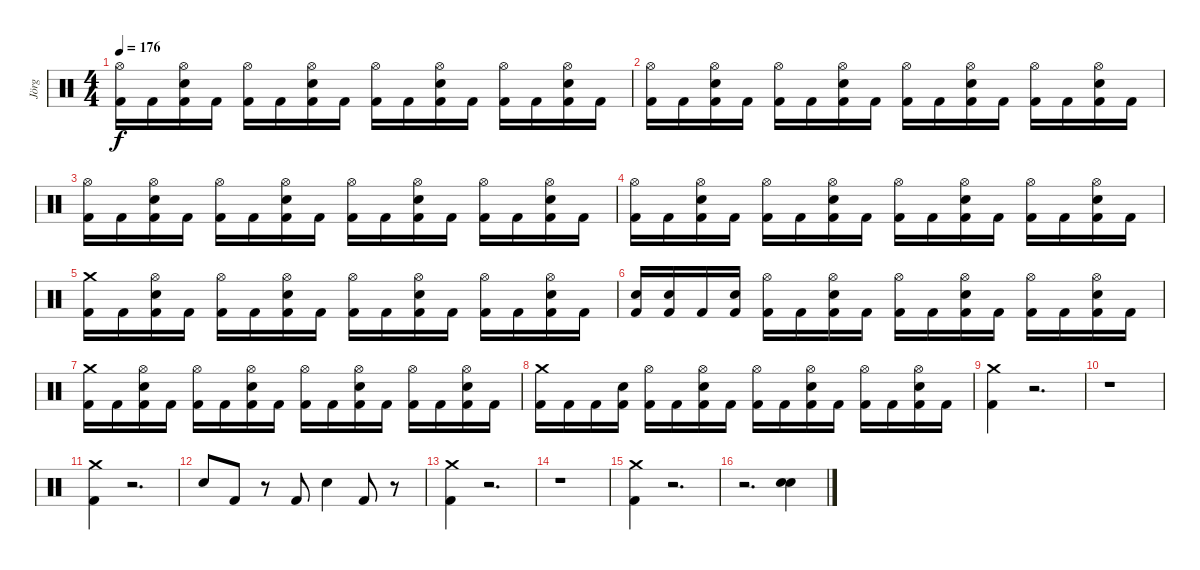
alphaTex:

\track ("Jörg" "Jörg") {instrument percussion}
\staff {score}
\articulation defaults
\ts (4 4)
\tempo 176
\clef neutral
\ks c
("Hi-Hat (open)" "Kick (hit) 2").16{dy f} "Kick (hit) 2".16 ("Snare (hit) 2" "Hi-Hat (open)" "Kick (hit) 2").16 "Kick (hit) 2".16 ("Hi-Hat (open)" "Kick (hit) 2").16 "Kick (hit) 2".16 ("Snare (hit) 2" "Hi-Hat (open)" "Kick (hit) 2").16 "Kick (hit) 2".16 ("Hi-Hat (open)" "Kick (hit) 2").16 "Kick (hit) 2".16 ("Snare (hit) 2" "Hi-Hat (open)" "Kick (hit) 2").16 "Kick (hit) 2".16 ("Hi-Hat (open)" "Kick (hit) 2").16 "Kick (hit) 2".16 ("Snare (hit) 2" "Hi-Hat (open)" "Kick (hit) 2").16 "Kick (hit) 2".16 |
("Hi-Hat (open)" "Kick (hit) 2").16 "Kick (hit) 2".16 ("Snare (hit) 2" "Hi-Hat (open)" "Kick (hit) 2").16 "Kick (hit) 2".16 ("Hi-Hat (open)" "Kick (hit) 2").16 "Kick (hit) 2".16 ("Snare (hit) 2" "Hi-Hat (open)" "Kick (hit) 2").16 "Kick (hit) 2".16 ("Hi-Hat (open)" "Kick (hit) 2").16 "Kick (hit) 2".16 ("Snare (hit) 2" "Hi-Hat (open)" "Kick (hit) 2").16 "Kick (hit) 2".16 ("Hi-Hat (open)" "Kick (hit) 2").16 "Kick (hit) 2".16 ("Snare (hit) 2" "Hi-Hat (open)" "Kick (hit) 2").16 "Kick (hit) 2".16 |
("Hi-Hat (open)" "Kick (hit) 2").16 "Kick (hit) 2".16 ("Snare (hit) 2" "Hi-Hat (open)" "Kick (hit) 2").16 "Kick (hit) 2".16 ("Hi-Hat (open)" "Kick (hit) 2").16 "Kick (hit) 2".16 ("Snare (hit) 2" "Hi-Hat (open)" "Kick (hit) 2").16 "Kick (hit) 2".16 ("Hi-Hat (open)" "Kick (hit) 2").16 "Kick (hit) 2".16 ("Snare (hit) 2" "Hi-Hat (open)" "Kick (hit) 2").16 "Kick (hit) 2".16 ("Hi-Hat (open)" "Kick (hit) 2").16 "Kick (hit) 2".16 ("Snare (hit) 2" "Hi-Hat (open)" "Kick (hit) 2").16 "Kick (hit) 2".16 |
("Hi-Hat (open)" "Kick (hit) 2").16 "Kick (hit) 2".16 ("Snare (hit) 2" "Hi-Hat (open)" "Kick (hit) 2").16 "Kick (hit) 2".16 ("Hi-Hat (open)" "Kick (hit) 2").16 "Kick (hit) 2".16 ("Snare (hit) 2" "Hi-Hat (open)" "Kick (hit) 2").16 "Kick (hit) 2".16 ("Hi-Hat (open)" "Kick (hit) 2").16 "Kick (hit) 2".16 ("Snare (hit) 2" "Hi-Hat (open)" "Kick (hit) 2").16 "Kick (hit) 2".16 ("Hi-Hat (open)" "Kick (hit) 2").16 "Kick (hit) 2".16 ("Snare (hit) 2" "Hi-Hat (open)" "Kick (hit) 2").16 "Kick (hit) 2".16 |
("Crash medium (hit)" "Kick (hit) 2").16 "Kick (hit) 2".16 ("Snare (hit) 2" "Hi-Hat (open)" "Kick (hit) 2").16 "Kick (hit) 2".16 ("Hi-Hat (open)" "Kick (hit) 2").16 "Kick (hit) 2".16 ("Snare (hit) 2" "Hi-Hat (open)" "Kick (hit) 2").16 "Kick (hit) 2".16 ("Hi-Hat (open)" "Kick (hit) 2").16 "Kick (hit) 2".16 ("Snare (hit) 2" "Hi-Hat (open)" "Kick (hit) 2").16 "Kick (hit) 2".16 ("Hi-Hat (open)" "Kick (hit) 2").16 "Kick (hit) 2".16 ("Snare (hit) 2" "Hi-Hat (open)" "Kick (hit) 2").16 "Kick (hit) 2".16 |
("Snare (hit) 2" "Kick (hit) 2").16 ("Snare (hit) 2" "Kick (hit) 2").16 "Kick (hit) 2".16 ("Snare (hit) 2" "Kick (hit) 2").16 ("Hi-Hat (open)" "Kick (hit) 2").16 "Kick (hit) 2".16 ("Snare (hit) 2" "Hi-Hat (open)" "Kick (hit) 2").16 "Kick (hit) 2".16 ("Hi-Hat (open)" "Kick (hit) 2").16 "Kick (hit) 2".16 ("Snare (hit) 2" "Hi-Hat (open)" "Kick (hit) 2").16 "Kick (hit) 2".16 ("Hi-Hat (open)" "Kick (hit) 2").16 "Kick (hit) 2".16 ("Snare (hit) 2" "Hi-Hat (open)" "Kick (hit) 2").16 "Kick (hit) 2".16 |
("Crash medium (hit)" "Kick (hit) 2").16 "Kick (hit) 2".16 ("Snare (hit) 2" "Hi-Hat (open)" "Kick (hit) 2").16 "Kick (hit) 2".16 ("Hi-Hat (open)" "Kick (hit) 2").16 "Kick (hit) 2".16 ("Snare (hit) 2" "Hi-Hat (open)" "Kick (hit) 2").16 "Kick (hit) 2".16 ("Hi-Hat (open)" "Kick (hit) 2").16 "Kick (hit) 2".16 ("Snare (hit) 2" "Hi-Hat (open)" "Kick (hit) 2").16 "Kick (hit) 2".16 ("Hi-Hat (open)" "Kick (hit) 2").16 "Kick (hit) 2".16 ("Snare (hit) 2" "Hi-Hat (open)" "Kick (hit) 2").16 "Kick (hit) 2".16 |
("Crash medium (hit)" "Kick (hit) 2").16 "Kick (hit) 2".16 "Kick (hit) 2".16 ("Snare (hit) 2" "Kick (hit) 2").16 ("Hi-Hat (open)" "Kick (hit) 2").16 "Kick (hit) 2".16 ("Snare (hit) 2" "Hi-Hat (open)" "Kick (hit) 2").16 "Kick (hit) 2".16 ("Hi-Hat (open)" "Kick (hit) 2").16 "Kick (hit) 2".16 ("Snare (hit) 2" "Hi-Hat (open)" "Kick (hit) 2").16 "Kick (hit) 2".16 ("Hi-Hat (open)" "Kick (hit) 2").16 "Kick (hit) 2".16 ("Snare (hit) 2" "Hi-Hat (open)" "Kick (hit) 2").16 "Kick (hit) 2".16 |
("Crash medium (hit)" "Kick (hit) 2").4 r.2{d} |
r.1 |
("Crash medium (hit)" "Kick (hit) 2").4 r.2{d} |
"Snare (hit) 2".8 "Kick (hit) 2".8 r.8 "Kick (hit) 2".8 "Snare (hit) 2".4 "Kick (hit) 2".8 r.8 |
("Crash medium (hit)" "Kick (hit) 2").4 r.2{d} |
r.1 |
("Crash medium (hit)" "Kick (hit) 2").4 r.2{d} |
r.2{d} ("Snare (hit) 2" "Snare (hit) 2").4
